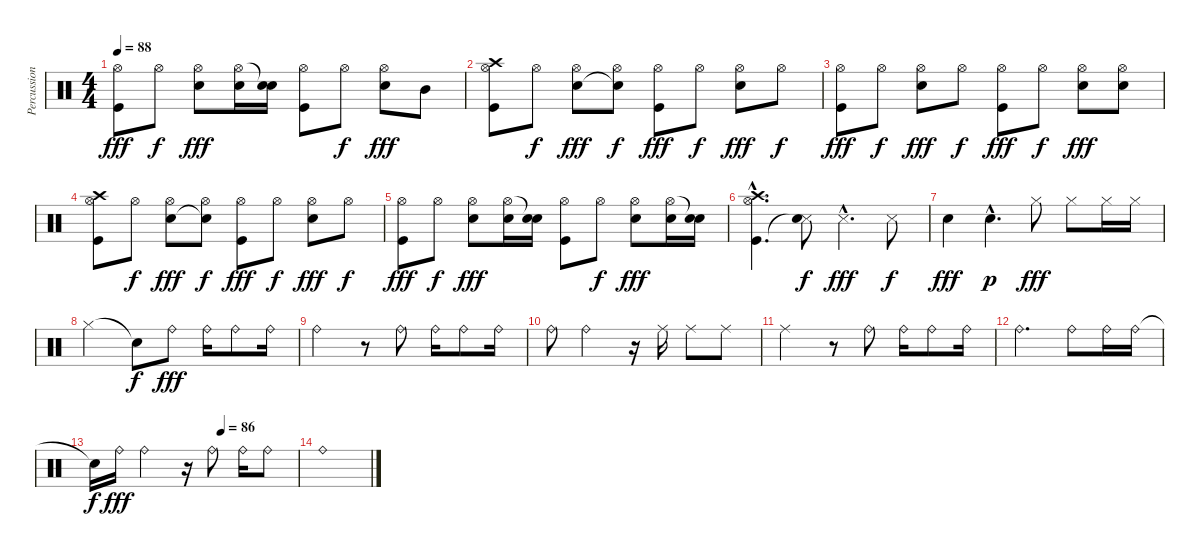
\track ("Percussions" "Percussion") {instrument percussion}
\staff {score}
\articulation defaults
\ts (4 4)
\tempo 88
\clef neutral
\ks c
("Hi-Hat (open)" "Kick (hit)").8{dy fff} "Hi-Hat (open)".8{dy f} ("Hi-Hat (open)" "Snare (hit) 2").8{dy fff} ("Hi-Hat (open)" "Snare (hit) 2").16 ("Snare (hit)"{t} "Snare (hit) 2").16 ("Hi-Hat (open)" "Kick (hit)").8 "Hi-Hat (open)".8{dy f} ("Hi-Hat (open)" "Snare (hit) 2").8{dy fff} "Mid Tom (hit)".8 |
("Hi-Hat (open)" "Kick (hit)" "Crash high (hit)").8 "Hi-Hat (open)".8{dy f} ("Hi-Hat (open)" "Snare (hit) 2").8{dy fff} ("Hi-Hat (open)" "Snare (hit)"{t}).8{dy f} ("Hi-Hat (open)" "Kick (hit)").8{dy fff} "Hi-Hat (open)".8{dy f} ("Hi-Hat (open)" "Snare (hit) 2").8{dy fff} "Hi-Hat (open)".8{dy f} |
("Hi-Hat (open)" "Kick (hit)").8{dy fff} "Hi-Hat (open)".8{dy f} ("Hi-Hat (open)" "Snare (hit) 2").8{dy fff} "Hi-Hat (open)".8{dy f} ("Hi-Hat (open)" "Kick (hit)").8{dy fff} "Hi-Hat (open)".8{dy f} ("Hi-Hat (open)" "Snare (hit) 2").8{dy fff} ("Hi-Hat (open)" "Snare (hit) 2").8 |
("Hi-Hat (open)" "Kick (hit)" "Crash high (hit)").8 "Hi-Hat (open)".8{dy f} ("Hi-Hat (open)" "Snare (hit) 2").8{dy fff} ("Hi-Hat (open)" "Snare (hit)"{t}).8{dy f} ("Hi-Hat (open)" "Kick (hit)").8{dy fff} "Hi-Hat (open)".8{dy f} ("Hi-Hat (open)" "Snare (hit) 2").8{dy fff} "Hi-Hat (open)".8{dy f} |
("Hi-Hat (open)" "Kick (hit)").8{dy fff} "Hi-Hat (open)".8{dy f} ("Hi-Hat (open)" "Snare (hit) 2").8{dy fff} ("Hi-Hat (open)" "Snare (hit) 2").16 ("Snare (hit)"{t} "Snare (hit) 2").16 ("Hi-Hat (open)" "Kick (hit)").8 "Hi-Hat (open)".8{dy f} ("Hi-Hat (open)" "Snare (hit) 2").8{dy fff} ("Hi-Hat (open)" "Snare (hit) 2").16 ("Snare (hit)"{t} "Snare (hit) 2").16 |
("Hi-Hat (open)"{hac} "Kick (hit)"{hac} "Crash high (hit)"{hac}).4{d} ("Metronome (hit)" "Snare (hit)"{t}).8{dy f} "Metronome (hit)"{hac}.4{d dy fff} "Metronome (hit)".8{dy f} |
"Electric Snare (hit)".4{dy fff} "Electric Snare (hit)"{hac}.4{d dy p} "Hi-Hat (closed)".8{dy fff} "Hi-Hat (closed)".8 "Hi-Hat (closed)".16 "Hi-Hat (closed)".16 |
"Hi-Hat (closed)".2 "Snare (hit)"{t}.8{dy f} "Ride (bell)".8{dy fff} "Ride (bell)".16 "Ride (bell)".8 "Ride (bell)".16 |
"Ride (bell)".2 r.8 "Ride (bell)".8 "Ride (bell)".16 "Ride (bell)".8 "Ride (bell)".16 |
"Ride (bell)".8 "Ride (bell)".2 r.16 "Ride (middle)".16 "Ride (middle)".8 "Ride (middle)".8 |
"Ride (middle)".2 r.8 "Ride (bell)".8 "Ride (bell)".16 "Ride (bell)".8 "Ride (bell)".16 |
"Ride (bell)".2{d} "Ride (bell)".8 "Ride (bell)".16 "Ride (bell)".16 |
\tempo (86 0.625)
"Snare (hit)"{t}.16{dy f} "Ride (bell)".16{dy fff} "Ride (bell)".2 r.16 "Ride (bell)".8 "Ride (bell)".16 "Ride (bell)".8 |
"Ride (bell)".1
